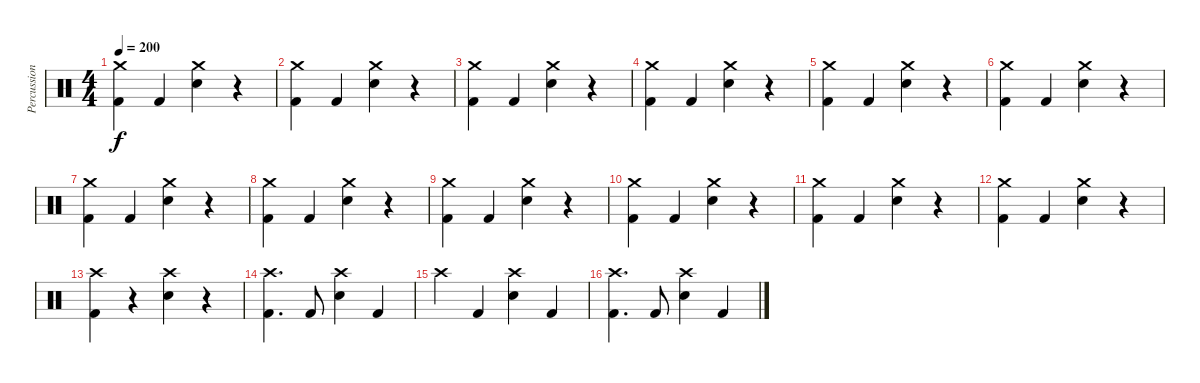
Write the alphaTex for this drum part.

\track ("Percussion" "Percussion") {instrument percussion}
\staff {score}
\articulation defaults
\ts (4 4)
\tempo 200
\clef neutral
\ks c
("Crash medium (hit)" "Kick (hit) 2").4{dy f} "Kick (hit) 2".4 ("Crash medium (hit)" "Snare (hit) 2").4 r.4 |
("Crash medium (hit)" "Kick (hit) 2").4 "Kick (hit) 2".4 ("Crash medium (hit)" "Snare (hit) 2").4 r.4 |
("Crash medium (hit)" "Kick (hit) 2").4 "Kick (hit) 2".4 ("Crash medium (hit)" "Snare (hit) 2").4 r.4 |
("Crash medium (hit)" "Kick (hit) 2").4 "Kick (hit) 2".4 ("Crash medium (hit)" "Snare (hit) 2").4 r.4 |
("Crash medium (hit)" "Kick (hit) 2").4 "Kick (hit) 2".4 ("Crash medium (hit)" "Snare (hit) 2").4 r.4 |
("Crash medium (hit)" "Kick (hit) 2").4 "Kick (hit) 2".4 ("Crash medium (hit)" "Snare (hit) 2").4 r.4 |
("Crash medium (hit)" "Kick (hit) 2").4 "Kick (hit) 2".4 ("Crash medium (hit)" "Snare (hit) 2").4 r.4 |
("Crash medium (hit)" "Kick (hit) 2").4 "Kick (hit) 2".4 ("Crash medium (hit)" "Snare (hit) 2").4 r.4 |
("Crash medium (hit)" "Kick (hit) 2").4 "Kick (hit) 2".4 ("Crash medium (hit)" "Snare (hit) 2").4 r.4 |
("Crash medium (hit)" "Kick (hit) 2").4 "Kick (hit) 2".4 ("Crash medium (hit)" "Snare (hit) 2").4 r.4 |
("Crash medium (hit)" "Kick (hit) 2").4 "Kick (hit) 2".4 ("Crash medium (hit)" "Snare (hit) 2").4 r.4 |
("Crash medium (hit)" "Kick (hit) 2").4 "Kick (hit) 2".4 ("Crash medium (hit)" "Snare (hit) 2").4 r.4 |
("Crash high (hit)" "Kick (hit) 2").4 r.4 ("Crash high (hit)" "Snare (hit) 2").4 r.4 |
("Crash high (hit)" "Kick (hit) 2").4{d} "Kick (hit) 2".8 ("Crash high (hit)" "Snare (hit) 2").4 "Kick (hit) 2".4 |
"Crash high (hit)".4 "Kick (hit) 2".4 ("Crash high (hit)" "Snare (hit) 2").4 "Kick (hit) 2".4 |
("Crash high (hit)" "Kick (hit) 2").4{d} "Kick (hit) 2".8 ("Crash high (hit)" "Snare (hit) 2").4 "Kick (hit) 2".4
